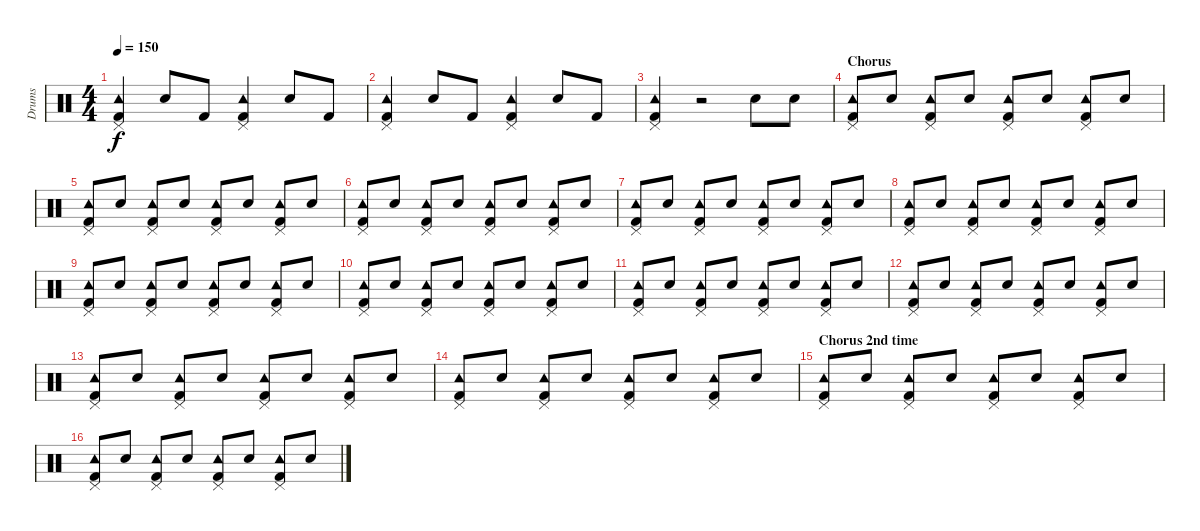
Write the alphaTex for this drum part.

\track ("Drums" "Drums") {instrument percussion}
\staff {score}
\articulation defaults
\ts (4 4)
\tempo 150
\clef neutral
\ks c
("Kick (hit) 2" "Pedal Hi-Hat (hit)" "Tambourine (hit)").4{dy f} "Snare (hit) 2".8 "Kick (hit) 2".8 ("Kick (hit) 2" "Pedal Hi-Hat (hit)" "Tambourine (hit)").4 "Snare (hit) 2".8 "Kick (hit) 2".8 |
("Kick (hit) 2" "Pedal Hi-Hat (hit)" "Tambourine (hit)").4 "Snare (hit) 2".8 "Kick (hit) 2".8 ("Kick (hit) 2" "Pedal Hi-Hat (hit)" "Tambourine (hit)").4 "Snare (hit) 2".8 "Kick (hit) 2".8 |
("Kick (hit) 2" "Pedal Hi-Hat (hit)" "Tambourine (hit)").4 r.2 "Snare (hit) 2".8 "Snare (hit) 2".8 |
\section ("" "Chorus")
("Kick (hit) 2" "Pedal Hi-Hat (hit)" "Tambourine (hit)").8 "Snare (hit) 2".8 ("Kick (hit) 2" "Pedal Hi-Hat (hit)" "Tambourine (hit)").8 "Snare (hit) 2".8 ("Kick (hit) 2" "Pedal Hi-Hat (hit)" "Tambourine (hit)").8 "Snare (hit) 2".8 ("Kick (hit) 2" "Pedal Hi-Hat (hit)" "Tambourine (hit)").8 "Snare (hit) 2".8 |
("Kick (hit) 2" "Pedal Hi-Hat (hit)" "Tambourine (hit)").8 "Snare (hit) 2".8 ("Kick (hit) 2" "Pedal Hi-Hat (hit)" "Tambourine (hit)").8 "Snare (hit) 2".8 ("Kick (hit) 2" "Pedal Hi-Hat (hit)" "Tambourine (hit)").8 "Snare (hit) 2".8 ("Kick (hit) 2" "Pedal Hi-Hat (hit)" "Tambourine (hit)").8 "Snare (hit) 2".8 |
("Kick (hit) 2" "Pedal Hi-Hat (hit)" "Tambourine (hit)").8 "Snare (hit) 2".8 ("Kick (hit) 2" "Pedal Hi-Hat (hit)" "Tambourine (hit)").8 "Snare (hit) 2".8 ("Kick (hit) 2" "Pedal Hi-Hat (hit)" "Tambourine (hit)").8 "Snare (hit) 2".8 ("Kick (hit) 2" "Pedal Hi-Hat (hit)" "Tambourine (hit)").8 "Snare (hit) 2".8 |
("Kick (hit) 2" "Pedal Hi-Hat (hit)" "Tambourine (hit)").8 "Snare (hit) 2".8 ("Kick (hit) 2" "Pedal Hi-Hat (hit)" "Tambourine (hit)").8 "Snare (hit) 2".8 ("Kick (hit) 2" "Pedal Hi-Hat (hit)" "Tambourine (hit)").8 "Snare (hit) 2".8 ("Kick (hit) 2" "Pedal Hi-Hat (hit)" "Tambourine (hit)").8 "Snare (hit) 2".8 |
("Kick (hit) 2" "Pedal Hi-Hat (hit)" "Tambourine (hit)").8 "Snare (hit) 2".8 ("Kick (hit) 2" "Pedal Hi-Hat (hit)" "Tambourine (hit)").8 "Snare (hit) 2".8 ("Kick (hit) 2" "Pedal Hi-Hat (hit)" "Tambourine (hit)").8 "Snare (hit) 2".8 ("Kick (hit) 2" "Pedal Hi-Hat (hit)" "Tambourine (hit)").8 "Snare (hit) 2".8 |
("Kick (hit) 2" "Pedal Hi-Hat (hit)" "Tambourine (hit)").8 "Snare (hit) 2".8 ("Kick (hit) 2" "Pedal Hi-Hat (hit)" "Tambourine (hit)").8 "Snare (hit) 2".8 ("Kick (hit) 2" "Pedal Hi-Hat (hit)" "Tambourine (hit)").8 "Snare (hit) 2".8 ("Kick (hit) 2" "Pedal Hi-Hat (hit)" "Tambourine (hit)").8 "Snare (hit) 2".8 |
("Kick (hit) 2" "Pedal Hi-Hat (hit)" "Tambourine (hit)").8 "Snare (hit) 2".8 ("Kick (hit) 2" "Pedal Hi-Hat (hit)" "Tambourine (hit)").8 "Snare (hit) 2".8 ("Kick (hit) 2" "Pedal Hi-Hat (hit)" "Tambourine (hit)").8 "Snare (hit) 2".8 ("Kick (hit) 2" "Pedal Hi-Hat (hit)" "Tambourine (hit)").8 "Snare (hit) 2".8 |
("Kick (hit) 2" "Pedal Hi-Hat (hit)" "Tambourine (hit)").8 "Snare (hit) 2".8 ("Kick (hit) 2" "Pedal Hi-Hat (hit)" "Tambourine (hit)").8 "Snare (hit) 2".8 ("Kick (hit) 2" "Pedal Hi-Hat (hit)" "Tambourine (hit)").8 "Snare (hit) 2".8 ("Kick (hit) 2" "Pedal Hi-Hat (hit)" "Tambourine (hit)").8 "Snare (hit) 2".8 |
("Kick (hit) 2" "Pedal Hi-Hat (hit)" "Tambourine (hit)").8 "Snare (hit) 2".8 ("Kick (hit) 2" "Pedal Hi-Hat (hit)" "Tambourine (hit)").8 "Snare (hit) 2".8 ("Kick (hit) 2" "Pedal Hi-Hat (hit)" "Tambourine (hit)").8 "Snare (hit) 2".8 ("Kick (hit) 2" "Pedal Hi-Hat (hit)" "Tambourine (hit)").8 "Snare (hit) 2".8 |
("Kick (hit) 2" "Pedal Hi-Hat (hit)" "Tambourine (hit)").8 "Snare (hit) 2".8 ("Kick (hit) 2" "Pedal Hi-Hat (hit)" "Tambourine (hit)").8 "Snare (hit) 2".8 ("Kick (hit) 2" "Pedal Hi-Hat (hit)" "Tambourine (hit)").8 "Snare (hit) 2".8 ("Kick (hit) 2" "Pedal Hi-Hat (hit)" "Tambourine (hit)").8 "Snare (hit) 2".8 |
("Kick (hit) 2" "Pedal Hi-Hat (hit)" "Tambourine (hit)").8 "Snare (hit) 2".8 ("Kick (hit) 2" "Pedal Hi-Hat (hit)" "Tambourine (hit)").8 "Snare (hit) 2".8 ("Kick (hit) 2" "Pedal Hi-Hat (hit)" "Tambourine (hit)").8 "Snare (hit) 2".8 ("Kick (hit) 2" "Pedal Hi-Hat (hit)" "Tambourine (hit)").8 "Snare (hit) 2".8 |
\section ("" "Chorus 2nd time")
("Kick (hit) 2" "Pedal Hi-Hat (hit)" "Tambourine (hit)").8 "Snare (hit) 2".8 ("Kick (hit) 2" "Pedal Hi-Hat (hit)" "Tambourine (hit)").8 "Snare (hit) 2".8 ("Kick (hit) 2" "Pedal Hi-Hat (hit)" "Tambourine (hit)").8 "Snare (hit) 2".8 ("Kick (hit) 2" "Pedal Hi-Hat (hit)" "Tambourine (hit)").8 "Snare (hit) 2".8 |
("Kick (hit) 2" "Pedal Hi-Hat (hit)" "Tambourine (hit)").8 "Snare (hit) 2".8 ("Kick (hit) 2" "Pedal Hi-Hat (hit)" "Tambourine (hit)").8 "Snare (hit) 2".8 ("Kick (hit) 2" "Pedal Hi-Hat (hit)" "Tambourine (hit)").8 "Snare (hit) 2".8 ("Kick (hit) 2" "Pedal Hi-Hat (hit)" "Tambourine (hit)").8 "Snare (hit) 2".8
